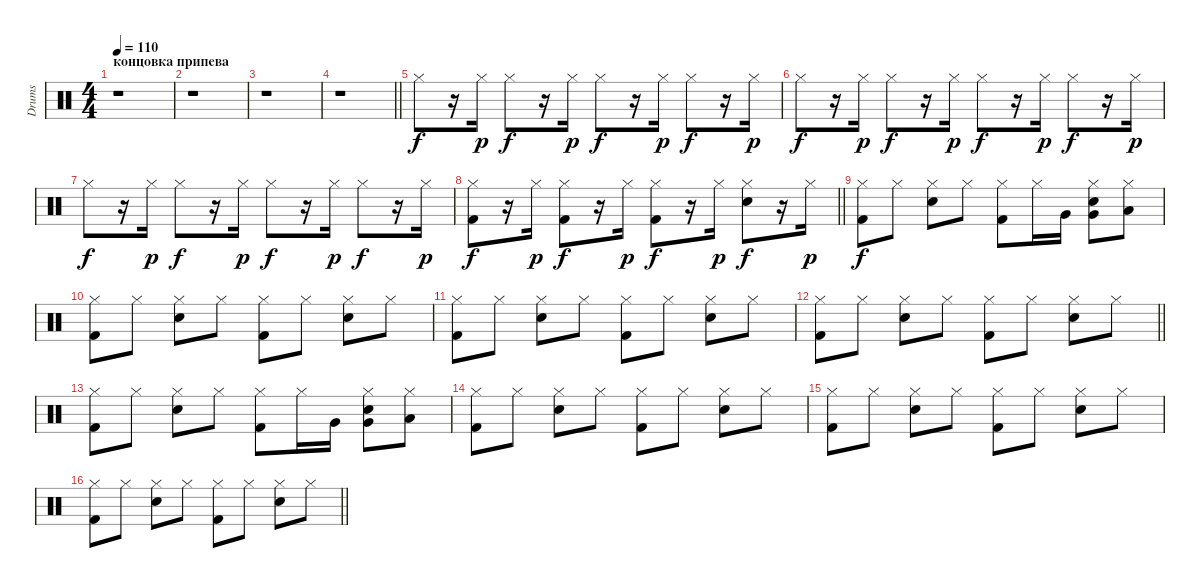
\track ("Drums" "Drums") {instrument percussion}
\staff {score}
\articulation defaults
\ts (4 4)
\section ("" "концовка припева")
\tempo 110
\clef neutral
\ks c
r.1{dy f} |
r.1 |
r.1 |
\barLineRight lightlight
r.1 |
"Hi-Hat (closed)".8 r.16 "Hi-Hat (closed)".16{dy p} "Hi-Hat (closed)".8{dy f} r.16 "Hi-Hat (closed)".16{dy p} "Hi-Hat (closed)".8{dy f} r.16 "Hi-Hat (closed)".16{dy p} "Hi-Hat (closed)".8{dy f} r.16 "Hi-Hat (closed)".16{dy p} |
"Hi-Hat (closed)".8{dy f} r.16 "Hi-Hat (closed)".16{dy p} "Hi-Hat (closed)".8{dy f} r.16 "Hi-Hat (closed)".16{dy p} "Hi-Hat (closed)".8{dy f} r.16 "Hi-Hat (closed)".16{dy p} "Hi-Hat (closed)".8{dy f} r.16 "Hi-Hat (closed)".16{dy p} |
"Hi-Hat (closed)".8{dy f} r.16 "Hi-Hat (closed)".16{dy p} "Hi-Hat (closed)".8{dy f} r.16 "Hi-Hat (closed)".16{dy p} "Hi-Hat (closed)".8{dy f} r.16 "Hi-Hat (closed)".16{dy p} "Hi-Hat (closed)".8{dy f} r.16 "Hi-Hat (closed)".16{dy p} |
\barLineRight lightlight
("Hi-Hat (closed)" "Kick (hit) 2").8{dy f} r.16 "Hi-Hat (closed)".16{dy p} ("Hi-Hat (closed)" "Kick (hit) 2").8{dy f} r.16 "Hi-Hat (closed)".16{dy p} ("Hi-Hat (closed)" "Kick (hit) 2").8{dy f} r.16 "Hi-Hat (closed)".16{dy p} ("Hi-Hat (closed)" "Electric Snare (hit)").8{dy f} r.16 "Hi-Hat (closed)".16{dy p} |
("Hi-Hat (closed)" "Kick (hit) 2").8{dy f} "Hi-Hat (closed)".8 ("Hi-Hat (closed)" "Electric Snare (hit)").8 "Hi-Hat (closed)".8 ("Hi-Hat (closed)" "Kick (hit) 2").8 "Hi-Hat (closed)".16 "Very Low Tom (hit)".16 ("Hi-Hat (closed)" "Electric Snare (hit)" "Very Low Tom (hit)").8 ("Hi-Hat (closed)" "Low Floor Tom (hit)").8 |
("Hi-Hat (closed)" "Kick (hit) 2").8 "Hi-Hat (closed)".8 ("Hi-Hat (closed)" "Electric Snare (hit)").8 "Hi-Hat (closed)".8 ("Hi-Hat (closed)" "Kick (hit) 2").8 "Hi-Hat (closed)".8 ("Hi-Hat (closed)" "Electric Snare (hit)").8 "Hi-Hat (closed)".8 |
("Hi-Hat (closed)" "Kick (hit) 2").8 "Hi-Hat (closed)".8 ("Hi-Hat (closed)" "Electric Snare (hit)").8 "Hi-Hat (closed)".8 ("Hi-Hat (closed)" "Kick (hit) 2").8 "Hi-Hat (closed)".8 ("Hi-Hat (closed)" "Electric Snare (hit)").8 "Hi-Hat (closed)".8 |
\barLineRight lightlight
("Hi-Hat (closed)" "Kick (hit) 2").8 "Hi-Hat (closed)".8 ("Hi-Hat (closed)" "Electric Snare (hit)").8 "Hi-Hat (closed)".8 ("Hi-Hat (closed)" "Kick (hit) 2").8 "Hi-Hat (closed)".8 ("Hi-Hat (closed)" "Electric Snare (hit)").8 "Hi-Hat (closed)".8 |
("Hi-Hat (closed)" "Kick (hit) 2").8 "Hi-Hat (closed)".8 ("Hi-Hat (closed)" "Electric Snare (hit)").8 "Hi-Hat (closed)".8 ("Hi-Hat (closed)" "Kick (hit) 2").8 "Hi-Hat (closed)".16 "Very Low Tom (hit)".16 ("Hi-Hat (closed)" "Electric Snare (hit)" "Very Low Tom (hit)").8 ("Hi-Hat (closed)" "Low Floor Tom (hit)").8 |
("Hi-Hat (closed)" "Kick (hit) 2").8 "Hi-Hat (closed)".8 ("Hi-Hat (closed)" "Electric Snare (hit)").8 "Hi-Hat (closed)".8 ("Hi-Hat (closed)" "Kick (hit) 2").8 "Hi-Hat (closed)".8 ("Hi-Hat (closed)" "Electric Snare (hit)").8 "Hi-Hat (closed)".8 |
("Hi-Hat (closed)" "Kick (hit) 2").8 "Hi-Hat (closed)".8 ("Hi-Hat (closed)" "Electric Snare (hit)").8 "Hi-Hat (closed)".8 ("Hi-Hat (closed)" "Kick (hit) 2").8 "Hi-Hat (closed)".8 ("Hi-Hat (closed)" "Electric Snare (hit)").8 "Hi-Hat (closed)".8 |
\barLineRight lightlight
("Hi-Hat (closed)" "Kick (hit) 2").8 "Hi-Hat (closed)".8 ("Hi-Hat (closed)" "Electric Snare (hit)").8 "Hi-Hat (closed)".8 ("Hi-Hat (closed)" "Kick (hit) 2").8 "Hi-Hat (closed)".8 ("Hi-Hat (closed)" "Electric Snare (hit)").8 "Hi-Hat (closed)".8
